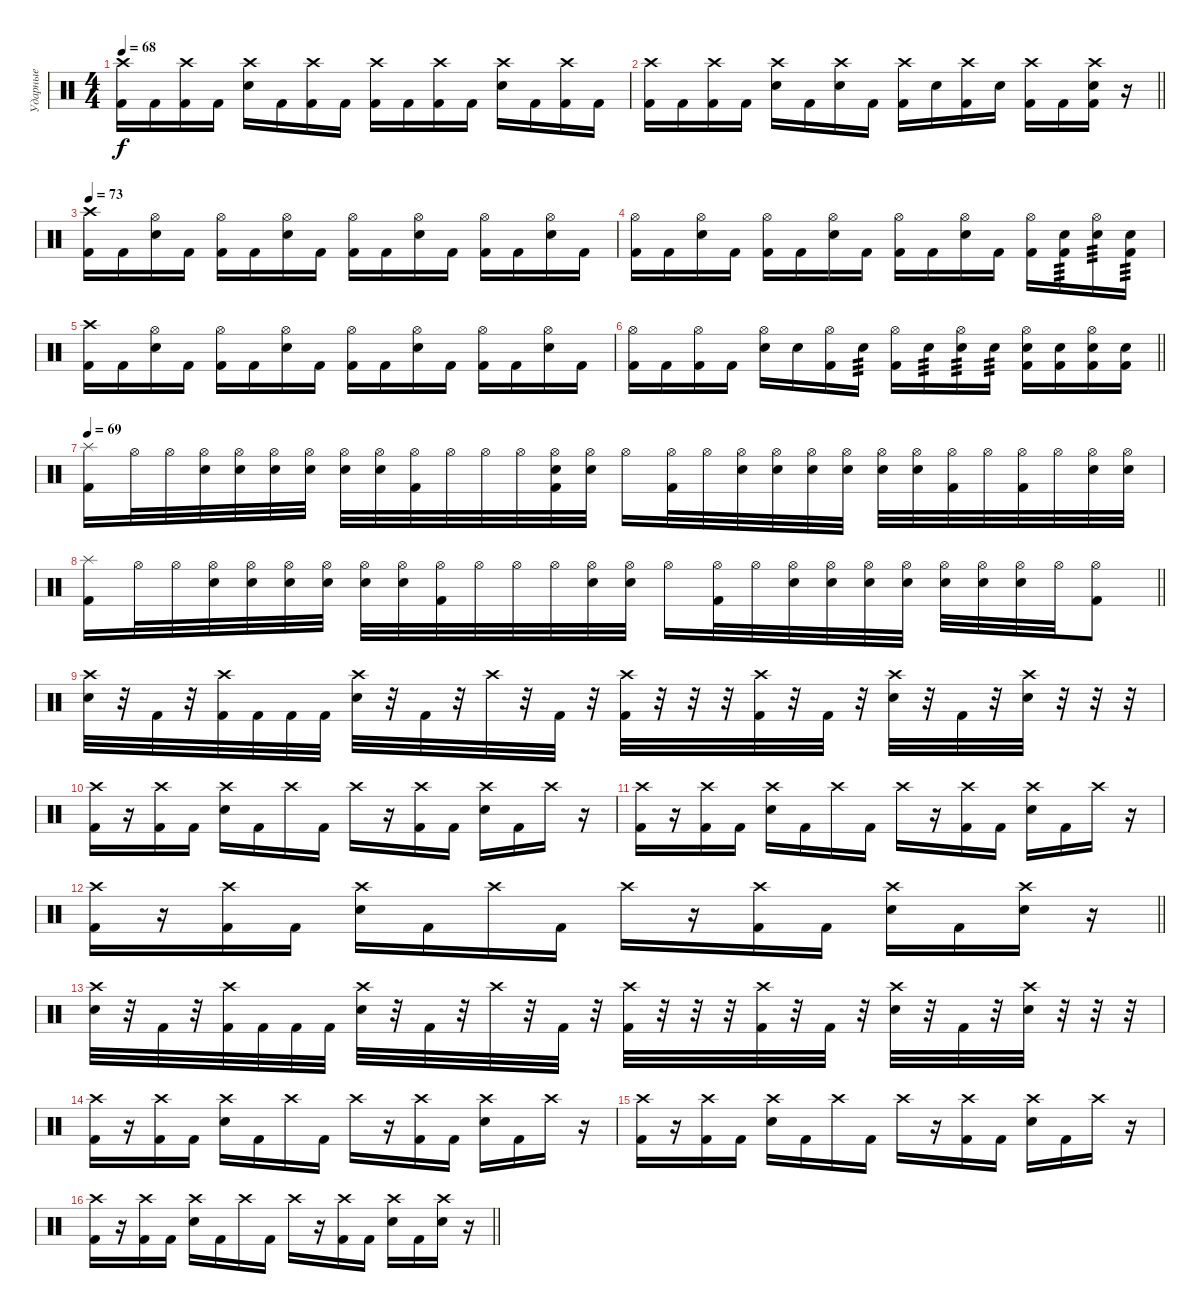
\track ("Ударные" "Ударные") {instrument percussion}
\staff {score}
\articulation defaults
\ts (4 4)
\tempo 68
\clef neutral
\ks c
("Crash high (hit)" "Kick (hit) 2").16{dy f} "Kick (hit) 2".16 ("Crash high (hit)" "Kick (hit) 2").16 "Kick (hit) 2".16 ("Crash high (hit)" "Electric Snare (hit)").16 "Kick (hit) 2".16 ("Crash high (hit)" "Kick (hit) 2").16 "Kick (hit) 2".16 ("Crash high (hit)" "Kick (hit) 2").16 "Kick (hit) 2".16 ("Crash high (hit)" "Kick (hit) 2").16 "Kick (hit) 2".16 ("Crash high (hit)" "Electric Snare (hit)").16 "Kick (hit) 2".16 ("Crash high (hit)" "Kick (hit) 2").16 "Kick (hit) 2".16 |
\barLineRight lightlight
("Crash high (hit)" "Kick (hit) 2").16 "Kick (hit) 2".16 ("Crash high (hit)" "Kick (hit) 2").16 "Kick (hit) 2".16 ("Crash high (hit)" "Electric Snare (hit)").16 "Kick (hit) 2".16 ("Crash high (hit)" "Electric Snare (hit)").16 "Kick (hit) 2".16 ("Crash high (hit)" "Kick (hit) 2").16 "Electric Snare (hit)".16 ("Crash high (hit)" "Kick (hit) 2").16 "Electric Snare (hit)".16 ("Crash high (hit)" "Kick (hit) 2").16 "Kick (hit) 2".16 ("Crash high (hit)" "Electric Snare (hit)" "Kick (hit) 2").16 r.16 |
\section ("" "")
\tempo 73
("Crash high (hit)" "Kick (hit) 2").16 "Kick (hit) 2".16 ("Hi-Hat (open)" "Electric Snare (hit)").16 "Kick (hit) 2".16 ("Hi-Hat (open)" "Kick (hit) 2").16 "Kick (hit) 2".16 ("Hi-Hat (open)" "Electric Snare (hit)").16 "Kick (hit) 2".16 ("Hi-Hat (open)" "Kick (hit) 2").16 "Kick (hit) 2".16 ("Hi-Hat (open)" "Electric Snare (hit)").16 "Kick (hit) 2".16 ("Hi-Hat (open)" "Kick (hit) 2").16 "Kick (hit) 2".16 ("Hi-Hat (open)" "Electric Snare (hit)").16 "Kick (hit) 2".16 |
("Hi-Hat (open)" "Kick (hit) 2").16 "Kick (hit) 2".16 ("Hi-Hat (open)" "Electric Snare (hit)").16 "Kick (hit) 2".16 ("Hi-Hat (open)" "Kick (hit) 2").16 "Kick (hit) 2".16 ("Hi-Hat (open)" "Electric Snare (hit)").16 "Kick (hit) 2".16 ("Hi-Hat (open)" "Kick (hit) 2").16 "Kick (hit) 2".16 ("Hi-Hat (open)" "Electric Snare (hit)").16 "Kick (hit) 2".16 ("Hi-Hat (open)" "Kick (hit) 2").16 ("Electric Snare (hit)" "Kick (hit) 2").16{tp 3} ("Hi-Hat (open)" "Electric Snare (hit)").16{tp 3} ("Electric Snare (hit)" "Kick (hit) 2").16{tp 3} |
("Crash high (hit)" "Kick (hit) 2").16 "Kick (hit) 2".16 ("Hi-Hat (open)" "Electric Snare (hit)").16 "Kick (hit) 2".16 ("Hi-Hat (open)" "Kick (hit) 2").16 "Kick (hit) 2".16 ("Hi-Hat (open)" "Electric Snare (hit)").16 "Kick (hit) 2".16 ("Hi-Hat (open)" "Kick (hit) 2").16 "Kick (hit) 2".16 ("Hi-Hat (open)" "Electric Snare (hit)").16 "Kick (hit) 2".16 ("Hi-Hat (open)" "Kick (hit) 2").16 "Kick (hit) 2".16 ("Hi-Hat (open)" "Electric Snare (hit)").16 "Kick (hit) 2".16 |
\barLineRight lightlight
("Hi-Hat (open)" "Kick (hit) 2").16 "Kick (hit) 2".16 ("Hi-Hat (open)" "Kick (hit) 2").16 "Kick (hit) 2".16 ("Hi-Hat (open)" "Electric Snare (hit)").16 "Electric Snare (hit)".16 ("Hi-Hat (open)" "Kick (hit) 2").16 "Electric Snare (hit)".16{tp 3} ("Hi-Hat (open)" "Kick (hit) 2").16 "Electric Snare (hit)".16{tp 3} ("Hi-Hat (open)" "Electric Snare (hit)").16{tp 3} "Electric Snare (hit)".16{tp 3} ("Hi-Hat (open)" "Electric Snare (hit)" "Kick (hit) 2").16 ("Electric Snare (hit)" "Kick (hit) 2").16 ("Hi-Hat (open)" "Electric Snare (hit)" "Kick (hit) 2").16 ("Electric Snare (hit)" "Kick (hit) 2").16 |
\section ("" "")
\tempo 69
("Splash (hit)" "Kick (hit) 2").16 "Hi-Hat (open)".32 "Hi-Hat (open)".32 ("Hi-Hat (open)" "Electric Snare (hit)").32 ("Hi-Hat (open)" "Electric Snare (hit)").32 ("Hi-Hat (open)" "Electric Snare (hit)").32 ("Hi-Hat (open)" "Electric Snare (hit)").32 ("Hi-Hat (open)" "Electric Snare (hit)").32 ("Hi-Hat (open)" "Electric Snare (hit)").32 ("Hi-Hat (open)" "Kick (hit) 2").32 "Hi-Hat (open)".32 "Hi-Hat (open)".32 "Hi-Hat (open)".32 ("Hi-Hat (open)" "Electric Snare (hit)" "Kick (hit) 2").32 ("Hi-Hat (open)" "Electric Snare (hit)").32 "Hi-Hat (open)".16 ("Hi-Hat (open)" "Kick (hit) 2").32 "Hi-Hat (open)".32 ("Hi-Hat (open)" "Electric Snare (hit)").32 ("Hi-Hat (open)" "Electric Snare (hit)").32 ("Hi-Hat (open)" "Electric Snare (hit)").32 ("Hi-Hat (open)" "Electric Snare (hit)").32 ("Hi-Hat (open)" "Electric Snare (hit)").32 ("Hi-Hat (open)" "Electric Snare (hit)").32 ("Hi-Hat (open)" "Kick (hit) 2").32 "Hi-Hat (open)".32 ("Hi-Hat (open)" "Kick (hit) 2").32 "Hi-Hat (open)".32 ("Hi-Hat (open)" "Electric Snare (hit)").32 ("Hi-Hat (open)" "Electric Snare (hit)").32 |
\barLineRight lightlight
("Splash (hit)" "Kick (hit) 2").16 "Hi-Hat (open)".32 "Hi-Hat (open)".32 ("Hi-Hat (open)" "Electric Snare (hit)").32 ("Hi-Hat (open)" "Electric Snare (hit)").32 ("Hi-Hat (open)" "Electric Snare (hit)").32 ("Hi-Hat (open)" "Electric Snare (hit)").32 ("Hi-Hat (open)" "Electric Snare (hit)").32 ("Hi-Hat (open)" "Electric Snare (hit)").32 ("Hi-Hat (open)" "Kick (hit) 2").32 "Hi-Hat (open)".32 "Hi-Hat (open)".32 "Hi-Hat (open)".32 ("Hi-Hat (open)" "Electric Snare (hit)").32 ("Hi-Hat (open)" "Electric Snare (hit)").32 "Hi-Hat (open)".16 ("Hi-Hat (open)" "Kick (hit) 2").32 "Hi-Hat (open)".32 ("Hi-Hat (open)" "Electric Snare (hit)").32 ("Hi-Hat (open)" "Electric Snare (hit)").32 ("Hi-Hat (open)" "Electric Snare (hit)").32 ("Hi-Hat (open)" "Electric Snare (hit)").32 ("Hi-Hat (open)" "Electric Snare (hit)").32 ("Hi-Hat (open)" "Electric Snare (hit)").32 ("Hi-Hat (open)" "Electric Snare (hit)").32 "Hi-Hat (open)".32 ("Hi-Hat (open)" "Kick (hit) 2").8 |
\section ("" "")
("Crash high (hit)" "Electric Snare (hit)").32 r.32 "Kick (hit) 2".32 r.32 ("Crash high (hit)" "Kick (hit) 2").32 "Kick (hit) 2".32 "Kick (hit) 2".32 "Kick (hit) 2".32 ("Crash high (hit)" "Electric Snare (hit)").32 r.32 "Kick (hit) 2".32 r.32 "Crash high (hit)".32 r.32 "Kick (hit) 2".32 r.32 ("Crash high (hit)" "Kick (hit) 2").32 r.32 r.32 r.32 ("Crash high (hit)" "Kick (hit) 2").32 r.32 "Kick (hit) 2".32 r.32 ("Crash high (hit)" "Electric Snare (hit)").32 r.32 "Kick (hit) 2".32 r.32 ("Crash high (hit)" "Electric Snare (hit)").32 r.32 r.32 r.32 |
("Crash high (hit)" "Kick (hit) 2").16 r.16 ("Crash high (hit)" "Kick (hit) 2").16 "Kick (hit) 2".16 ("Crash high (hit)" "Electric Snare (hit)").16 "Kick (hit) 2".16 "Crash high (hit)".16 "Kick (hit) 2".16 "Crash high (hit)".16 r.16 ("Crash high (hit)" "Kick (hit) 2").16 "Kick (hit) 2".16 ("Crash high (hit)" "Electric Snare (hit)").16 "Kick (hit) 2".16 "Crash high (hit)".16 r.16 |
("Crash high (hit)" "Kick (hit) 2").16 r.16 ("Crash high (hit)" "Kick (hit) 2").16 "Kick (hit) 2".16 ("Crash high (hit)" "Electric Snare (hit)").16 "Kick (hit) 2".16 "Crash high (hit)".16 "Kick (hit) 2".16 "Crash high (hit)".16 r.16 ("Crash high (hit)" "Kick (hit) 2").16 "Kick (hit) 2".16 ("Crash high (hit)" "Electric Snare (hit)").16 "Kick (hit) 2".16 "Crash high (hit)".16 r.16 |
\barLineRight lightlight
("Crash high (hit)" "Kick (hit) 2").16 r.16 ("Crash high (hit)" "Kick (hit) 2").16 "Kick (hit) 2".16 ("Crash high (hit)" "Electric Snare (hit)").16 "Kick (hit) 2".16 "Crash high (hit)".16 "Kick (hit) 2".16 "Crash high (hit)".16 r.16 ("Crash high (hit)" "Kick (hit) 2").16 "Kick (hit) 2".16 ("Crash high (hit)" "Electric Snare (hit)").16 "Kick (hit) 2".16 ("Crash high (hit)" "Electric Snare (hit)").16 r.16 |
("Crash high (hit)" "Electric Snare (hit)").32 r.32 "Kick (hit) 2".32 r.32 ("Crash high (hit)" "Kick (hit) 2").32 "Kick (hit) 2".32 "Kick (hit) 2".32 "Kick (hit) 2".32 ("Crash high (hit)" "Electric Snare (hit)").32 r.32 "Kick (hit) 2".32 r.32 "Crash high (hit)".32 r.32 "Kick (hit) 2".32 r.32 ("Crash high (hit)" "Kick (hit) 2").32 r.32 r.32 r.32 ("Crash high (hit)" "Kick (hit) 2").32 r.32 "Kick (hit) 2".32 r.32 ("Crash high (hit)" "Electric Snare (hit)").32 r.32 "Kick (hit) 2".32 r.32 ("Crash high (hit)" "Electric Snare (hit)").32 r.32 r.32 r.32 |
("Crash high (hit)" "Kick (hit) 2").16 r.16 ("Crash high (hit)" "Kick (hit) 2").16 "Kick (hit) 2".16 ("Crash high (hit)" "Electric Snare (hit)").16 "Kick (hit) 2".16 "Crash high (hit)".16 "Kick (hit) 2".16 "Crash high (hit)".16 r.16 ("Crash high (hit)" "Kick (hit) 2").16 "Kick (hit) 2".16 ("Crash high (hit)" "Electric Snare (hit)").16 "Kick (hit) 2".16 "Crash high (hit)".16 r.16 |
("Crash high (hit)" "Kick (hit) 2").16 r.16 ("Crash high (hit)" "Kick (hit) 2").16 "Kick (hit) 2".16 ("Crash high (hit)" "Electric Snare (hit)").16 "Kick (hit) 2".16 "Crash high (hit)".16 "Kick (hit) 2".16 "Crash high (hit)".16 r.16 ("Crash high (hit)" "Kick (hit) 2").16 "Kick (hit) 2".16 ("Crash high (hit)" "Electric Snare (hit)").16 "Kick (hit) 2".16 "Crash high (hit)".16 r.16 |
\barLineRight lightlight
("Crash high (hit)" "Kick (hit) 2").16 r.16 ("Crash high (hit)" "Kick (hit) 2").16 "Kick (hit) 2".16 ("Crash high (hit)" "Electric Snare (hit)").16 "Kick (hit) 2".16 "Crash high (hit)".16 "Kick (hit) 2".16 "Crash high (hit)".16 r.16 ("Crash high (hit)" "Kick (hit) 2").16 "Kick (hit) 2".16 ("Crash high (hit)" "Electric Snare (hit)").16 "Kick (hit) 2".16 ("Crash high (hit)" "Electric Snare (hit)").16 r.16
